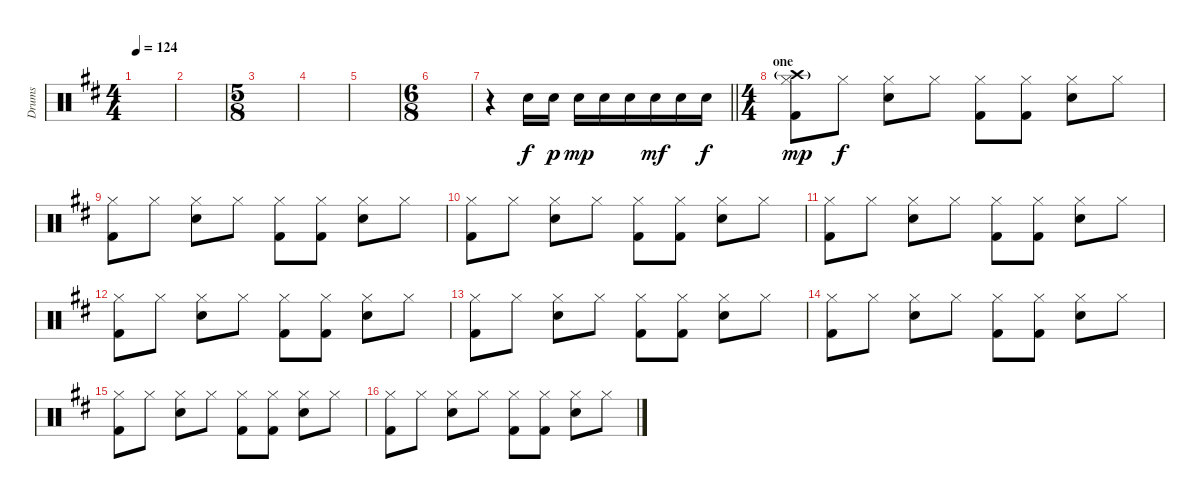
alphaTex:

\track ("Drums" "Drums") {instrument percussion}
\staff {score}
\articulation defaults
\ts (4 4)
\tempo 124
\clef neutral
\ks d
|
|
\ts (5 8)
|
|
|
\ts (6 8)
|
\barLineRight lightlight
r.4 "Electric Snare (hit)".16 "Electric Snare (hit)".16{dy p} "Electric Snare (hit)".16{dy mp} "Electric Snare (hit)".16 "Electric Snare (hit)".16 "Electric Snare (hit)".16{dy mf} "Electric Snare (hit)".16 "Electric Snare (hit)".16{dy f} |
\ts (4 4)
\section ("" "one")
("Crash high (hit)"{g} "Hi-Hat (closed)" "Kick (hit) 2").8{dy mp} "Hi-Hat (closed)".8{dy f} ("Hi-Hat (closed)" "Electric Snare (hit)").8 "Hi-Hat (closed)".8 ("Hi-Hat (closed)" "Kick (hit) 2").8 ("Hi-Hat (closed)" "Kick (hit) 2").8 ("Hi-Hat (closed)" "Electric Snare (hit)").8 "Hi-Hat (closed)".8 |
("Hi-Hat (closed)" "Kick (hit) 2").8 "Hi-Hat (closed)".8 ("Hi-Hat (closed)" "Electric Snare (hit)").8 "Hi-Hat (closed)".8 ("Hi-Hat (closed)" "Kick (hit) 2").8 ("Hi-Hat (closed)" "Kick (hit) 2").8 ("Hi-Hat (closed)" "Electric Snare (hit)").8 "Hi-Hat (closed)".8 |
("Hi-Hat (closed)" "Kick (hit) 2").8 "Hi-Hat (closed)".8 ("Hi-Hat (closed)" "Electric Snare (hit)").8 "Hi-Hat (closed)".8 ("Hi-Hat (closed)" "Kick (hit) 2").8 ("Hi-Hat (closed)" "Kick (hit) 2").8 ("Hi-Hat (closed)" "Electric Snare (hit)").8 "Hi-Hat (closed)".8 |
("Hi-Hat (closed)" "Kick (hit) 2").8 "Hi-Hat (closed)".8 ("Hi-Hat (closed)" "Electric Snare (hit)").8 "Hi-Hat (closed)".8 ("Hi-Hat (closed)" "Kick (hit) 2").8 ("Hi-Hat (closed)" "Kick (hit) 2").8 ("Hi-Hat (closed)" "Electric Snare (hit)").8 "Hi-Hat (closed)".8 |
("Hi-Hat (closed)" "Kick (hit) 2").8 "Hi-Hat (closed)".8 ("Hi-Hat (closed)" "Electric Snare (hit)").8 "Hi-Hat (closed)".8 ("Hi-Hat (closed)" "Kick (hit) 2").8 ("Hi-Hat (closed)" "Kick (hit) 2").8 ("Hi-Hat (closed)" "Electric Snare (hit)").8 "Hi-Hat (closed)".8 |
("Hi-Hat (closed)" "Kick (hit) 2").8 "Hi-Hat (closed)".8 ("Hi-Hat (closed)" "Electric Snare (hit)").8 "Hi-Hat (closed)".8 ("Hi-Hat (closed)" "Kick (hit) 2").8 ("Hi-Hat (closed)" "Kick (hit) 2").8 ("Hi-Hat (closed)" "Electric Snare (hit)").8 "Hi-Hat (closed)".8 |
("Hi-Hat (closed)" "Kick (hit) 2").8 "Hi-Hat (closed)".8 ("Hi-Hat (closed)" "Electric Snare (hit)").8 "Hi-Hat (closed)".8 ("Hi-Hat (closed)" "Kick (hit) 2").8 ("Hi-Hat (closed)" "Kick (hit) 2").8 ("Hi-Hat (closed)" "Electric Snare (hit)").8 "Hi-Hat (closed)".8 |
("Hi-Hat (closed)" "Kick (hit) 2").8 "Hi-Hat (closed)".8 ("Hi-Hat (closed)" "Electric Snare (hit)").8 "Hi-Hat (closed)".8 ("Hi-Hat (closed)" "Kick (hit) 2").8 ("Hi-Hat (closed)" "Kick (hit) 2").8 ("Hi-Hat (closed)" "Electric Snare (hit)").8 "Hi-Hat (closed)".8 |
("Hi-Hat (closed)" "Kick (hit) 2").8 "Hi-Hat (closed)".8 ("Hi-Hat (closed)" "Electric Snare (hit)").8 "Hi-Hat (closed)".8 ("Hi-Hat (closed)" "Kick (hit) 2").8 ("Hi-Hat (closed)" "Kick (hit) 2").8 ("Hi-Hat (closed)" "Electric Snare (hit)").8 "Hi-Hat (closed)".8
